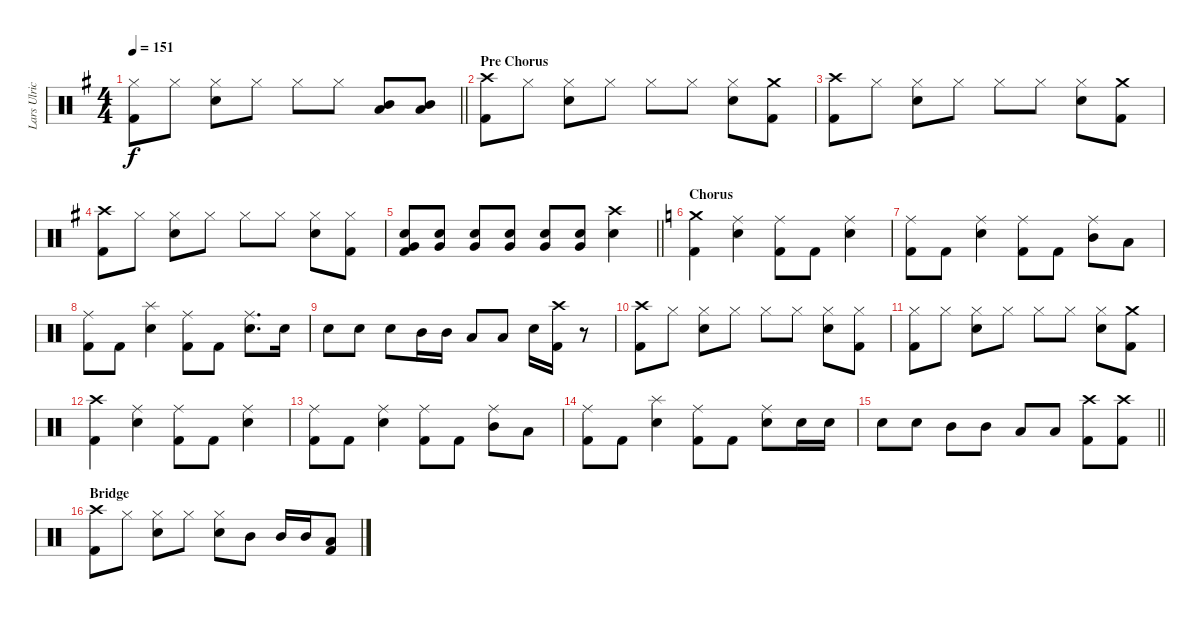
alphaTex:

\track ("Lars Ulrich" "Lars Ulric") {instrument percussion}
\staff {score}
\articulation defaults
\ts (4 4)
\tempo 151
\clef neutral
\barLineRight lightlight
\ks g
("Hi-Hat (closed)" "Kick (hit) 2").8{dy f} "Hi-Hat (closed)".8 ("Hi-Hat (closed)" "Snare (hit) 2").8 "Hi-Hat (closed)".8 "Hi-Hat (closed)".8 "Hi-Hat (closed)".8 ("Low Tom (hit)" "Mid Tom (hit)").8 ("Low Tom (hit)" "Mid Tom (hit)").8 |
\section ("" "Pre Chorus")
("Crash high (hit)" "Kick (hit) 2").8 "Hi-Hat (closed)".8 ("Hi-Hat (closed)" "Snare (hit) 2").8 "Hi-Hat (closed)".8 "Hi-Hat (closed)".8 "Hi-Hat (closed)".8 ("Hi-Hat (closed)" "Snare (hit) 2").8 ("Crash medium (hit)" "Kick (hit) 2").8 |
("Crash high (hit)" "Kick (hit) 2").8 "Hi-Hat (closed)".8 ("Hi-Hat (closed)" "Snare (hit) 2").8 "Hi-Hat (closed)".8 "Hi-Hat (closed)".8 "Hi-Hat (closed)".8 ("Hi-Hat (closed)" "Snare (hit) 2").8 ("Crash medium (hit)" "Kick (hit) 2").8 |
("Crash high (hit)" "Kick (hit) 2").8 "Hi-Hat (closed)".8 ("Hi-Hat (closed)" "Snare (hit) 2").8 "Hi-Hat (closed)".8 "Hi-Hat (closed)".8 "Hi-Hat (closed)".8 ("Hi-Hat (closed)" "Snare (hit) 2").8 ("Hi-Hat (closed)" "Kick (hit) 2").8 |
\barLineRight lightlight
("Very Low Tom (hit)" "Snare (hit) 2" "Kick (hit) 2").8 ("Very Low Tom (hit)" "Snare (hit) 2").8 ("Very Low Tom (hit)" "Snare (hit) 2").8 ("Very Low Tom (hit)" "Snare (hit) 2").8 ("Very Low Tom (hit)" "Snare (hit) 2").8 ("Very Low Tom (hit)" "Snare (hit) 2").8 ("Crash high (hit)" "Snare (hit) 2").4 |
\section ("" "Chorus")
\ks c
("Crash medium (hit)" "Kick (hit) 2").4 ("Ride (middle)" "Snare (hit) 2").4 ("Ride (middle)" "Kick (hit) 2").8 "Kick (hit) 2".8 ("Ride (middle)" "Snare (hit) 2").4 |
("Ride (middle)" "Kick (hit) 2").8 "Kick (hit) 2".8 ("Ride (middle)" "Snare (hit) 2").4 ("Ride (middle)" "Kick (hit) 2").8 "Kick (hit) 2".8 ("Ride (middle)" "Mid Tom (hit)").8 "Low Tom (hit)".8 |
("Ride (middle)" "Kick (hit) 2").8 "Kick (hit) 2".8 ("Splash (hit)" "Snare (hit) 2").4 ("Ride (middle)" "Kick (hit) 2").8 "Kick (hit) 2".8 ("Ride (middle)" "Snare (hit) 2").8{d} "Snare (hit) 2".16 |
"Snare (hit) 2".8 "Snare (hit) 2".8 "Snare (hit) 2".8 "Mid Tom (hit)".16 "Mid Tom (hit)".16 "Low Tom (hit)".8 "Low Tom (hit)".8 "Snare (hit) 2".16 ("Crash high (hit)" "Kick (hit) 2").16 r.8 |
("Crash high (hit)" "Kick (hit) 2").8 "Hi-Hat (closed)".8 ("Hi-Hat (closed)" "Snare (hit) 2").8 "Hi-Hat (closed)".8 "Hi-Hat (closed)".8 "Hi-Hat (closed)".8 ("Hi-Hat (closed)" "Snare (hit) 2").8 ("Hi-Hat (closed)" "Kick (hit) 2").8 |
("Hi-Hat (closed)" "Kick (hit) 2").8 "Hi-Hat (closed)".8 ("Hi-Hat (closed)" "Snare (hit) 2").8 "Hi-Hat (closed)".8 "Hi-Hat (closed)".8 "Hi-Hat (closed)".8 ("Hi-Hat (closed)" "Snare (hit) 2").8 ("Crash medium (hit)" "Kick (hit) 2").8 |
("Crash high (hit)" "Kick (hit) 2").4 ("Ride (middle)" "Snare (hit) 2").4 ("Ride (middle)" "Kick (hit) 2").8 "Kick (hit) 2".8 ("Ride (middle)" "Snare (hit) 2").4 |
("Ride (middle)" "Kick (hit) 2").8 "Kick (hit) 2".8 ("Ride (middle)" "Snare (hit) 2").4 ("Ride (middle)" "Kick (hit) 2").8 "Kick (hit) 2".8 ("Ride (middle)" "Mid Tom (hit)").8 "Low Tom (hit)".8 |
("Ride (middle)" "Kick (hit) 2").8 "Kick (hit) 2".8 ("Splash (hit)" "Snare (hit) 2").4 ("Ride (middle)" "Kick (hit) 2").8 "Kick (hit) 2".8 ("Ride (middle)" "Snare (hit) 2").8 "Snare (hit) 2".16 "Snare (hit) 2".16 |
\barLineRight lightlight "Snare (hit) 2".8 "Snare (hit) 2".8 "Mid Tom (hit)".8 "Mid Tom (hit)".8 "Low Tom (hit)".8 "Low Tom (hit)".8
("Crash high (hit)" "Kick (hit) 2").8 ("Crash high (hit)" "Kick (hit) 2").8 |
\section ("" "Bridge")
("Crash high (hit)" "Kick (hit) 2").8 "Hi-Hat (closed)".8 ("Hi-Hat (closed)" "Snare (hit) 2").8 "Hi-Hat (closed)".8 ("Hi-Hat (closed)" "Snare (hit) 2").8 "Mid Tom (hit)".8 "Mid Tom (hit)".16 "Mid Tom (hit)".16 ("Low Tom (hit)" "Kick (hit) 2").8
